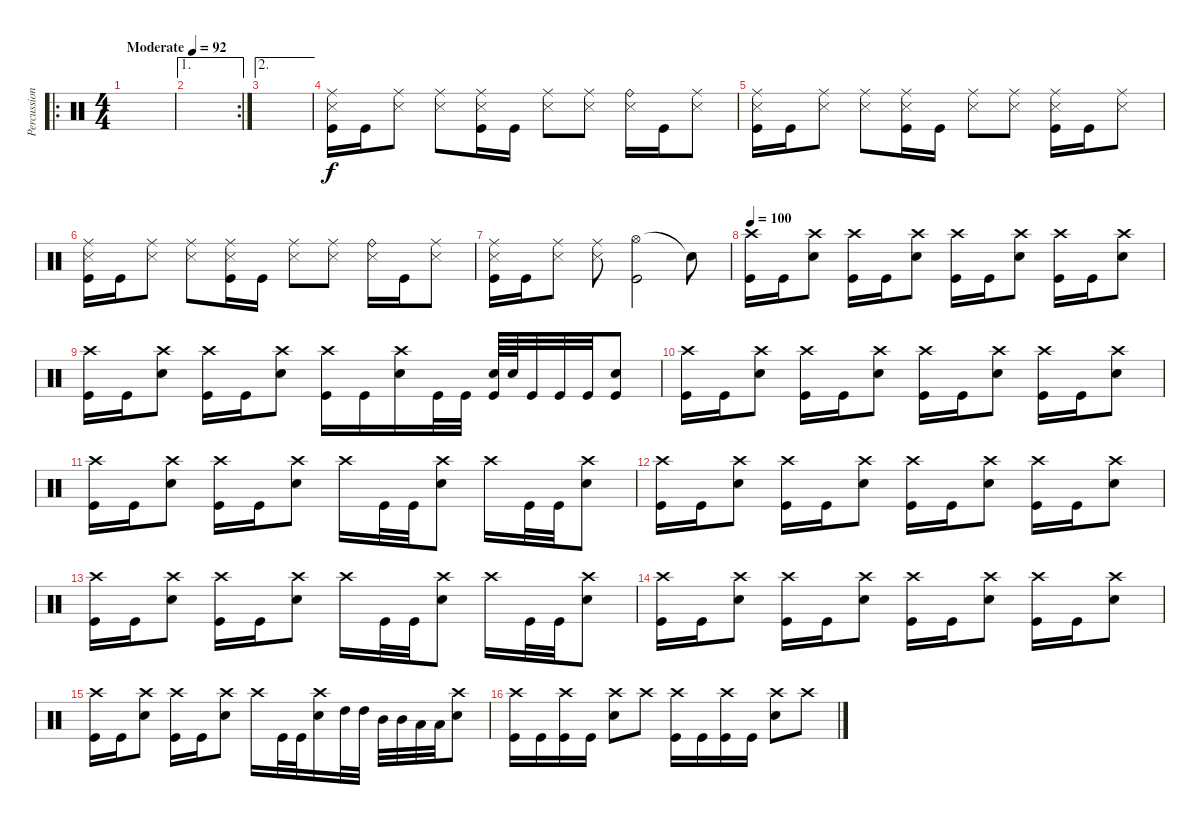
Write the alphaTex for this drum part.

\track ("Percussion" "Percussion") {instrument percussion}
\staff {score}
\articulation defaults
\ro
\ts (4 4)
\tempo (92 "Moderate")
\tempo 90
\tempo (92 "Moderate")
\clef neutral
\ks c
|
\ae 1
\rc 2
|
\ae 2
|
("Ride (middle)" "Snare (side stick) 3" "Kick (hit)").16 "Kick (hit)".16 ("Ride (middle)" "Snare (side stick) 3").8 ("Ride (middle)" "Snare (side stick) 3").8 ("Ride (middle)" "Snare (side stick) 3" "Kick (hit)").16 "Kick (hit)".16 ("Ride (middle)" "Snare (side stick) 3").8 ("Ride (middle)" "Snare (side stick) 3").8 ("Ride (bell)" "Snare (side stick) 3").16 "Kick (hit)".16 ("Ride (middle)" "Snare (side stick) 3").8 |
("Ride (middle)" "Snare (side stick) 3" "Kick (hit)").16 "Kick (hit)".16 ("Ride (middle)" "Snare (side stick) 3").8 ("Ride (middle)" "Snare (side stick) 3").8 ("Ride (middle)" "Snare (side stick) 3" "Kick (hit)").16 "Kick (hit)".16 ("Ride (middle)" "Snare (side stick) 3").8 ("Ride (middle)" "Snare (side stick) 3").8 ("Ride (middle)" "Snare (side stick) 3" "Kick (hit)").16 "Kick (hit)".16 ("Ride (middle)" "Snare (side stick) 3").8 |
("Ride (middle)" "Snare (side stick) 3" "Kick (hit)").16 "Kick (hit)".16 ("Ride (middle)" "Snare (side stick) 3").8 ("Ride (middle)" "Snare (side stick) 3").8 ("Ride (middle)" "Snare (side stick) 3" "Kick (hit)").16 "Kick (hit)".16 ("Ride (middle)" "Snare (side stick) 3").8 ("Ride (middle)" "Snare (side stick) 3").8 ("Ride (bell)" "Snare (side stick) 3").16 "Kick (hit)".16 ("Ride (middle)" "Snare (side stick) 3").8 |
("Ride (middle)" "Snare (side stick) 3" "Kick (hit)").16 "Kick (hit)".16 ("Ride (middle)" "Snare (side stick) 3").8 ("Ride (middle)" "Snare (side stick) 3").8 ("Hi-Hat (open)" "Kick (hit)").2 "Snare (hit)"{t}.8{dy f} |
\tempo 100
("Crash high (hit)" "Kick (hit)").16 "Kick (hit)".16 ("Crash high (hit)" "Electric Snare (hit)").8 ("Crash high (hit)" "Kick (hit)").16 "Kick (hit)".16 ("Crash high (hit)" "Electric Snare (hit)").8 ("Crash high (hit)" "Kick (hit)").16 "Kick (hit)".16 ("Crash high (hit)" "Electric Snare (hit)").8 ("Crash high (hit)" "Kick (hit)").16 "Kick (hit)".16 ("Crash high (hit)" "Electric Snare (hit)").8 |
("Crash high (hit)" "Kick (hit)").16 "Kick (hit)".16 ("Crash high (hit)" "Electric Snare (hit)").8 ("Crash high (hit)" "Kick (hit)").16 "Kick (hit)".16 ("Crash high (hit)" "Electric Snare (hit)").8 ("Crash high (hit)" "Kick (hit)").16 "Kick (hit)".16 ("Crash high (hit)" "Electric Snare (hit)").16 "Kick (hit)".32 "Kick (hit)".32 ("Electric Snare (hit)" "Kick (hit)").64 "Electric Snare (hit)".64 "Kick (hit)".32 "Kick (hit)".32 "Kick (hit)".32 ("Electric Snare (hit)" "Kick (hit)").8 |
("Crash high (hit)" "Kick (hit)").16 "Kick (hit)".16 ("Crash high (hit)" "Electric Snare (hit)").8 ("Crash high (hit)" "Kick (hit)").16 "Kick (hit)".16 ("Crash high (hit)" "Electric Snare (hit)").8 ("Crash high (hit)" "Kick (hit)").16 "Kick (hit)".16 ("Crash high (hit)" "Electric Snare (hit)").8 ("Crash high (hit)" "Kick (hit)").16 "Kick (hit)".16 ("Crash high (hit)" "Electric Snare (hit)").8 |
("Crash high (hit)" "Kick (hit)").16 "Kick (hit)".16 ("Crash high (hit)" "Electric Snare (hit)").8 ("Crash high (hit)" "Kick (hit)").16 "Kick (hit)".16 ("Crash high (hit)" "Electric Snare (hit)").8 "Crash high (hit)".16 "Kick (hit)".32 "Kick (hit)".32 ("Crash high (hit)" "Electric Snare (hit)").8 "Crash high (hit)".16 "Kick (hit)".32 "Kick (hit)".32 ("Crash high (hit)" "Electric Snare (hit)").8 |
("Crash high (hit)" "Kick (hit)").16 "Kick (hit)".16 ("Crash high (hit)" "Electric Snare (hit)").8 ("Crash high (hit)" "Kick (hit)").16 "Kick (hit)".16 ("Crash high (hit)" "Electric Snare (hit)").8 ("Crash high (hit)" "Kick (hit)").16 "Kick (hit)".16 ("Crash high (hit)" "Electric Snare (hit)").8 ("Crash high (hit)" "Kick (hit)").16 "Kick (hit)".16 ("Crash high (hit)" "Electric Snare (hit)").8 |
("Crash high (hit)" "Kick (hit)").16 "Kick (hit)".16 ("Crash high (hit)" "Electric Snare (hit)").8 ("Crash high (hit)" "Kick (hit)").16 "Kick (hit)".16 ("Crash high (hit)" "Electric Snare (hit)").8 "Crash high (hit)".16 "Kick (hit)".32 "Kick (hit)".32 ("Crash high (hit)" "Electric Snare (hit)").8 "Crash high (hit)".16 "Kick (hit)".32 "Kick (hit)".32 ("Crash high (hit)" "Electric Snare (hit)").8 |
("Crash high (hit)" "Kick (hit)").16 "Kick (hit)".16 ("Crash high (hit)" "Electric Snare (hit)").8 ("Crash high (hit)" "Kick (hit)").16 "Kick (hit)".16 ("Crash high (hit)" "Electric Snare (hit)").8 ("Crash high (hit)" "Kick (hit)").16 "Kick (hit)".16 ("Crash high (hit)" "Electric Snare (hit)").8 ("Crash high (hit)" "Kick (hit)").16 "Kick (hit)".16 ("Crash high (hit)" "Electric Snare (hit)").8 |
("Crash high (hit)" "Kick (hit)").16 "Kick (hit)".16 ("Crash high (hit)" "Electric Snare (hit)").8 ("Crash high (hit)" "Kick (hit)").16 "Kick (hit)".16 ("Crash high (hit)" "Electric Snare (hit)").8 "Crash high (hit)".16 "Kick (hit)".32 "Kick (hit)".32 ("Crash high (hit)" "Electric Snare (hit)").16 "High Tom (hit)".32 "High Tom (hit)".32 "Mid Tom (hit)".32 "Mid Tom (hit)".32 "Low Tom (hit)".32 "Low Tom (hit)".32 ("Crash high (hit)" "Electric Snare (hit)").8 |
("Crash high (hit)" "Kick (hit)").16 "Kick (hit)".16 ("Crash high (hit)" "Kick (hit)").16 "Kick (hit)".16 ("Crash high (hit)" "Electric Snare (hit)").8 "Crash high (hit)".8 ("Crash high (hit)" "Kick (hit)").16 "Kick (hit)".16 ("Crash high (hit)" "Kick (hit)").16 "Kick (hit)".16 ("Crash high (hit)" "Electric Snare (hit)").8 "Crash high (hit)".8
